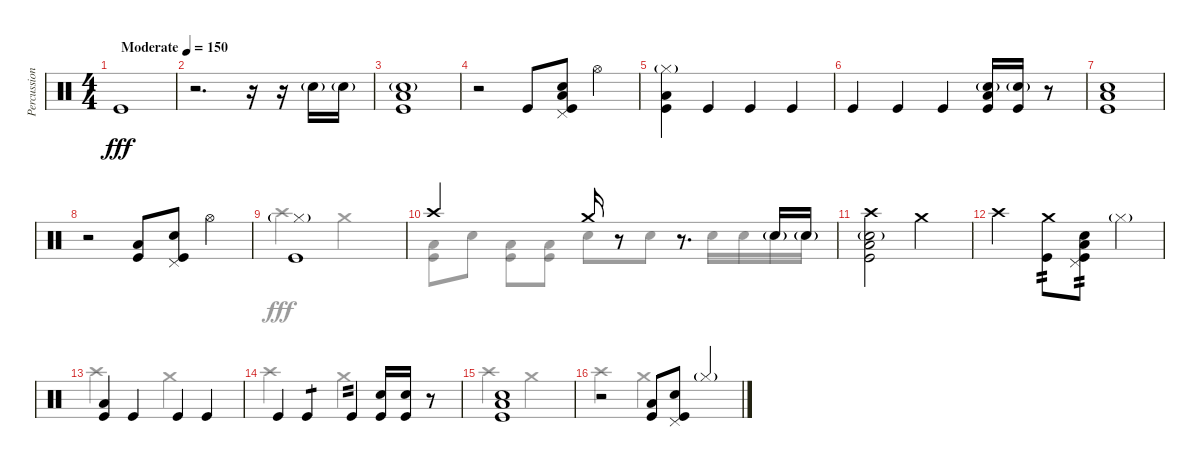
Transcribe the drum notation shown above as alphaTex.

\track ("Percussion" "Percussion") {instrument percussion}
\staff {score}
\articulation defaults
\voice
\ts (4 4)
\tempo (150 "Moderate")
\clef neutral
\ks c "Kick (hit)".1{dy fff}
|
r.2{d} r.16 r.16 "Snare (hit) 2"{g}.16 "Snare (hit) 2"{g}.16 |
("Snare (hit) 2"{g} "Kick (hit)" "Low Floor Tom (hit)").1 |
r.2 "Kick (hit)".8 ("Low Floor Tom (hit)" "Pedal Hi-Hat (hit)" "Snare (hit) 2" "Kick (hit)").8 "Hi-Hat (open)".4 |
("Hi-Hat (closed)"{g} "Kick (hit)" "Low Floor Tom (hit)").4 "Kick (hit)".4 "Kick (hit)".4 "Kick (hit)".4 |
"Kick (hit)".4 "Kick (hit)".4 "Kick (hit)".4 ("Snare (hit) 2"{g} "Low Floor Tom (hit)" "Kick (hit)").16 ("Snare (hit) 2"{g} "Kick (hit)").16 r.8 |
("Snare (hit) 2" "Kick (hit)" "Low Floor Tom (hit)").1 |
r.2 ("Low Floor Tom (hit)" "Kick (hit)").8 ("Pedal Hi-Hat (hit)" "Snare (hit) 2" "Kick (hit)").8 "Hi-Hat (open)".4 |
("Hi-Hat (closed)"{g} "Kick (hit)").1 |
"Crash high (hit)".2 "Crash medium (hit)".16 r.8 r.8{d} "Snare (hit) 2"{g}.16 "Snare (hit) 2"{g}.16 |
("Snare (hit) 2"{g} "Crash high (hit)" "Kick (hit)" "Low Floor Tom (hit)").2 "Crash medium (hit)".2 |
"Crash high (hit)".2 ("Crash medium (hit)" "Kick (hit)").8{tp 2} ("Low Floor Tom (hit)" "Pedal Hi-Hat (hit)" "Snare (hit) 2" "Kick (hit)").8{tp 2} "Hi-Hat (closed)"{g}.4 |
("Kick (hit)" "Low Floor Tom (hit)").4 "Kick (hit)".4 "Kick (hit)".4 "Kick (hit)".4 |
"Kick (hit)".4 "Kick (hit)".4{tp 1} "Kick (hit)".4{tp 2} ("Snare (hit) 2" "Kick (hit)").16 ("Snare (hit) 2" "Kick (hit)").16 r.8 |
("Snare (hit) 2" "Kick (hit)" "Low Floor Tom (hit)").1 |
r.2 ("Low Floor Tom (hit)" "Kick (hit)").8 ("Pedal Hi-Hat (hit)" "Snare (hit) 2" "Kick (hit)").8 "Hi-Hat (closed)"{g}.4
\voice
\clef neutral
\ottava regular
\simile none
\ks c
|
|
|
|
|
|
|
|
"Crash high (hit)".2 "Crash medium (hit)".2 |
("Low Tom (hit)" "Kick (hit)").8 "Snare (hit) 2".8 ("Low Floor Tom (hit)" "Kick (hit)").8 ("Low Floor Tom (hit)" "Kick (hit)").8 "Snare (hit) 2".8 "Snare (hit) 2".8 "Snare (hit) 2".16 "Snare (hit) 2".16 "Snare (hit) 2"{g}.16 "Snare (hit) 2"{g}.16 |
|
|
"Crash high (hit)".2 "Crash medium (hit)".2 |
"Crash high (hit)".2 "Crash medium (hit)".2 |
"Crash high (hit)".2 "Crash medium (hit)".2 |
"Crash high (hit)".2 "Crash medium (hit)".2
